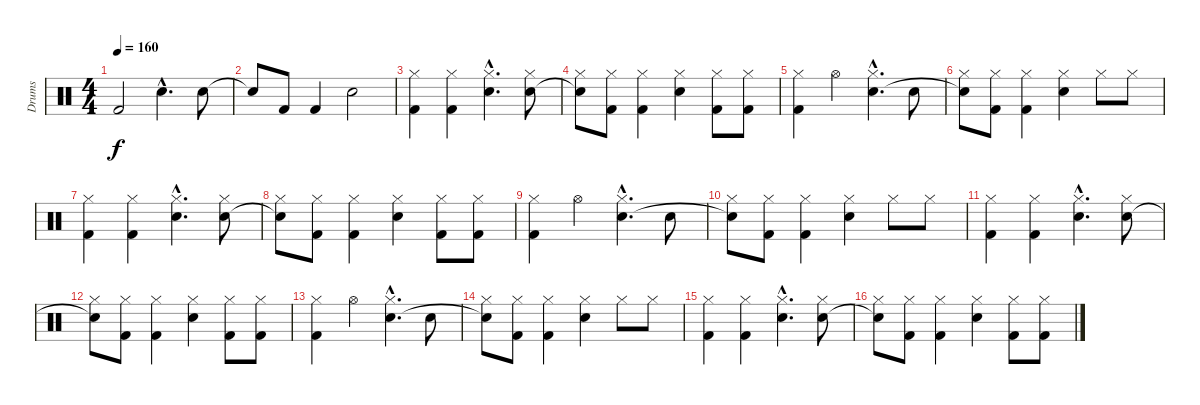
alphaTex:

\track ("Drums" "Drums") {instrument percussion}
\staff {score}
\articulation defaults
\ts (4 4)
\tempo 160
\clef neutral
\ks c "Kick (hit) 2".2{dy f} "Snare (hit) 2"{hac}.4{d} "Snare (hit) 2".8
|
"Snare (hit) 2"{t}.8 "Kick (hit) 2".8 "Kick (hit) 2".4 "Snare (hit) 2".2 |
("Hi-Hat (closed)" "Kick (hit) 2").4 ("Hi-Hat (closed)" "Kick (hit) 2").4 ("Hi-Hat (closed)"{hac} "Snare (hit) 2"{hac}).4{d} ("Hi-Hat (closed)" "Snare (hit) 2").8 |
("Hi-Hat (closed)" "Snare (hit) 2"{t}).8 ("Hi-Hat (closed)" "Kick (hit) 2").8 ("Hi-Hat (closed)" "Kick (hit) 2").4 ("Hi-Hat (closed)" "Snare (hit) 2").4 ("Hi-Hat (closed)" "Kick (hit) 2").8 ("Hi-Hat (closed)" "Kick (hit) 2").8 |
("Hi-Hat (closed)" "Kick (hit) 2").4 "Hi-Hat (open)".4 ("Hi-Hat (closed)"{hac} "Snare (hit) 2"{hac}).4{d} "Snare (hit) 2".8 |
("Hi-Hat (closed)" "Snare (hit) 2"{t}).8 ("Hi-Hat (closed)" "Kick (hit) 2").8 ("Hi-Hat (closed)" "Kick (hit) 2").4 ("Hi-Hat (closed)" "Snare (hit) 2").4 "Hi-Hat (closed)".8 "Hi-Hat (closed)".8 |
("Hi-Hat (closed)" "Kick (hit) 2").4 ("Hi-Hat (closed)" "Kick (hit) 2").4 ("Hi-Hat (closed)"{hac} "Snare (hit) 2"{hac}).4{d} ("Hi-Hat (closed)" "Snare (hit) 2").8 |
("Hi-Hat (closed)" "Snare (hit) 2"{t}).8 ("Hi-Hat (closed)" "Kick (hit) 2").8 ("Hi-Hat (closed)" "Kick (hit) 2").4 ("Hi-Hat (closed)" "Snare (hit) 2").4 ("Hi-Hat (closed)" "Kick (hit) 2").8 ("Hi-Hat (closed)" "Kick (hit) 2").8 |
("Hi-Hat (closed)" "Kick (hit) 2").4 "Hi-Hat (open)".4 ("Hi-Hat (closed)"{hac} "Snare (hit) 2"{hac}).4{d} "Snare (hit) 2".8 |
("Hi-Hat (closed)" "Snare (hit) 2"{t}).8 ("Hi-Hat (closed)" "Kick (hit) 2").8 ("Hi-Hat (closed)" "Kick (hit) 2").4 ("Hi-Hat (closed)" "Snare (hit) 2").4 "Hi-Hat (closed)".8 "Hi-Hat (closed)".8 |
("Hi-Hat (closed)" "Kick (hit) 2").4 ("Hi-Hat (closed)" "Kick (hit) 2").4 ("Hi-Hat (closed)"{hac} "Snare (hit) 2"{hac}).4{d} ("Hi-Hat (closed)" "Snare (hit) 2").8 |
("Hi-Hat (closed)" "Snare (hit) 2"{t}).8 ("Hi-Hat (closed)" "Kick (hit) 2").8 ("Hi-Hat (closed)" "Kick (hit) 2").4 ("Hi-Hat (closed)" "Snare (hit) 2").4 ("Hi-Hat (closed)" "Kick (hit) 2").8 ("Hi-Hat (closed)" "Kick (hit) 2").8 |
("Hi-Hat (closed)" "Kick (hit) 2").4 "Hi-Hat (open)".4 ("Hi-Hat (closed)"{hac} "Snare (hit) 2"{hac}).4{d} "Snare (hit) 2".8 |
("Hi-Hat (closed)" "Snare (hit) 2"{t}).8 ("Hi-Hat (closed)" "Kick (hit) 2").8 ("Hi-Hat (closed)" "Kick (hit) 2").4 ("Hi-Hat (closed)" "Snare (hit) 2").4 "Hi-Hat (closed)".8 "Hi-Hat (closed)".8 |
("Hi-Hat (closed)" "Kick (hit) 2").4 ("Hi-Hat (closed)" "Kick (hit) 2").4 ("Hi-Hat (closed)"{hac} "Snare (hit) 2"{hac}).4{d} ("Hi-Hat (closed)" "Snare (hit) 2").8 |
("Hi-Hat (closed)" "Snare (hit) 2"{t}).8 ("Hi-Hat (closed)" "Kick (hit) 2").8 ("Hi-Hat (closed)" "Kick (hit) 2").4 ("Hi-Hat (closed)" "Snare (hit) 2").4 ("Hi-Hat (closed)" "Kick (hit) 2").8 ("Hi-Hat (closed)" "Kick (hit) 2").8
